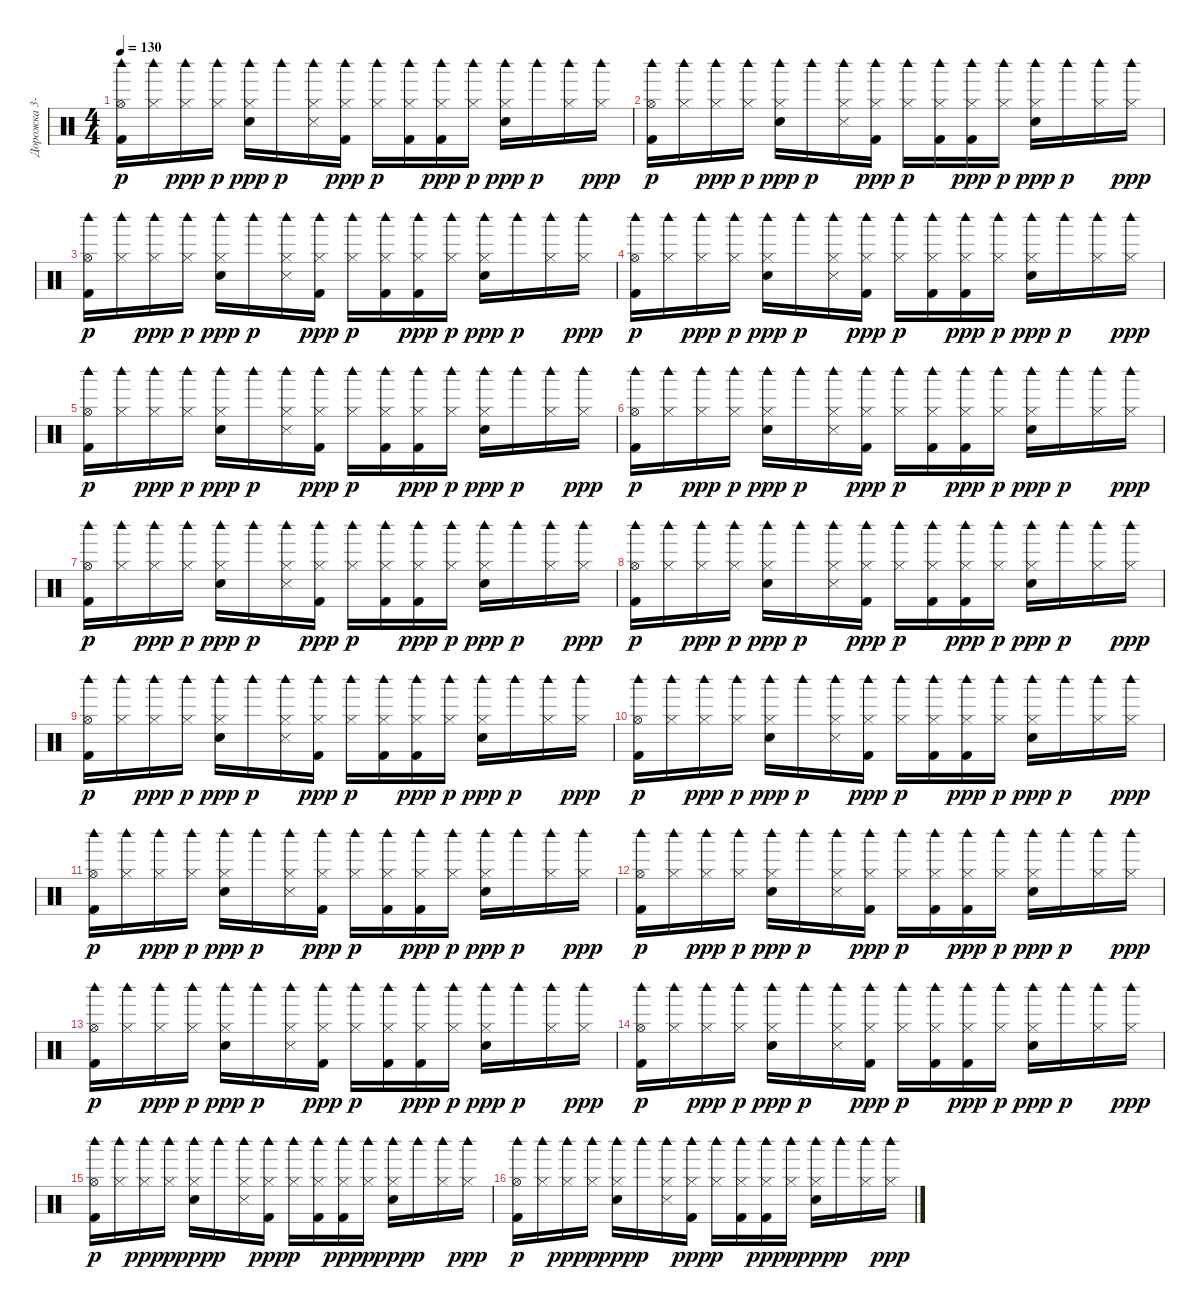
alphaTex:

\track ("Дорожка 3-4-5" "Дорожка 3-") {instrument percussion}
\staff {score}
\articulation defaults
\ts (4 4)
\tempo 130
\clef neutral
\ks c
("Kick (hit) 2" "Hi-Hat (open)" "Woodblock high (hit)").16{dy p} ("Hi-Hat (closed)" "Woodblock high (hit)").16 ("Hi-Hat (closed)" "Woodblock high (hit)").16{dy ppp} ("Hi-Hat (closed)" "Woodblock high (hit)").16{dy p} ("Electric Snare (hit)" "Hi-Hat (closed)" "Woodblock high (hit)").16{dy ppp} "Woodblock high (hit)".16{dy p} ("Snare (side stick) 3" "Hi-Hat (closed)" "Woodblock high (hit)").16 ("Kick (hit) 2" "Hi-Hat (closed)" "Woodblock high (hit)").16{dy ppp} ("Hi-Hat (closed)" "Woodblock high (hit)").16{dy p} ("Kick (hit) 2" "Hi-Hat (closed)" "Woodblock high (hit)").16 ("Kick (hit) 2" "Hi-Hat (closed)" "Woodblock high (hit)").16{dy ppp} ("Hi-Hat (closed)" "Woodblock high (hit)").16{dy p} ("Electric Snare (hit)" "Hi-Hat (closed)" "Woodblock high (hit)").16{dy ppp} "Woodblock high (hit)".16{dy p} ("Hi-Hat (closed)" "Woodblock high (hit)").16 ("Hi-Hat (closed)" "Woodblock high (hit)").16{dy ppp} |
("Kick (hit) 2" "Hi-Hat (open)" "Woodblock high (hit)").16{dy p} ("Hi-Hat (closed)" "Woodblock high (hit)").16 ("Hi-Hat (closed)" "Woodblock high (hit)").16{dy ppp} ("Hi-Hat (closed)" "Woodblock high (hit)").16{dy p} ("Electric Snare (hit)" "Hi-Hat (closed)" "Woodblock high (hit)").16{dy ppp} "Woodblock high (hit)".16{dy p} ("Snare (side stick) 3" "Hi-Hat (closed)" "Woodblock high (hit)").16 ("Kick (hit) 2" "Hi-Hat (closed)" "Woodblock high (hit)").16{dy ppp} ("Hi-Hat (closed)" "Woodblock high (hit)").16{dy p} ("Kick (hit) 2" "Hi-Hat (closed)" "Woodblock high (hit)").16 ("Kick (hit) 2" "Hi-Hat (closed)" "Woodblock high (hit)").16{dy ppp} ("Hi-Hat (closed)" "Woodblock high (hit)").16{dy p} ("Electric Snare (hit)" "Hi-Hat (closed)" "Woodblock high (hit)").16{dy ppp} "Woodblock high (hit)".16{dy p} ("Hi-Hat (closed)" "Woodblock high (hit)").16 ("Hi-Hat (closed)" "Woodblock high (hit)").16{dy ppp} |
("Kick (hit) 2" "Hi-Hat (open)" "Woodblock high (hit)").16{dy p} ("Hi-Hat (closed)" "Woodblock high (hit)").16 ("Hi-Hat (closed)" "Woodblock high (hit)").16{dy ppp} ("Hi-Hat (closed)" "Woodblock high (hit)").16{dy p} ("Electric Snare (hit)" "Hi-Hat (closed)" "Woodblock high (hit)").16{dy ppp} "Woodblock high (hit)".16{dy p} ("Snare (side stick) 3" "Hi-Hat (closed)" "Woodblock high (hit)").16 ("Kick (hit) 2" "Hi-Hat (closed)" "Woodblock high (hit)").16{dy ppp} ("Hi-Hat (closed)" "Woodblock high (hit)").16{dy p} ("Kick (hit) 2" "Hi-Hat (closed)" "Woodblock high (hit)").16 ("Kick (hit) 2" "Hi-Hat (closed)" "Woodblock high (hit)").16{dy ppp} ("Hi-Hat (closed)" "Woodblock high (hit)").16{dy p} ("Electric Snare (hit)" "Hi-Hat (closed)" "Woodblock high (hit)").16{dy ppp} "Woodblock high (hit)".16{dy p} ("Hi-Hat (closed)" "Woodblock high (hit)").16 ("Hi-Hat (closed)" "Woodblock high (hit)").16{dy ppp} |
("Kick (hit) 2" "Hi-Hat (open)" "Woodblock high (hit)").16{dy p} ("Hi-Hat (closed)" "Woodblock high (hit)").16 ("Hi-Hat (closed)" "Woodblock high (hit)").16{dy ppp} ("Hi-Hat (closed)" "Woodblock high (hit)").16{dy p} ("Electric Snare (hit)" "Hi-Hat (closed)" "Woodblock high (hit)").16{dy ppp} "Woodblock high (hit)".16{dy p} ("Snare (side stick) 3" "Hi-Hat (closed)" "Woodblock high (hit)").16 ("Kick (hit) 2" "Hi-Hat (closed)" "Woodblock high (hit)").16{dy ppp} ("Hi-Hat (closed)" "Woodblock high (hit)").16{dy p} ("Kick (hit) 2" "Hi-Hat (closed)" "Woodblock high (hit)").16 ("Kick (hit) 2" "Hi-Hat (closed)" "Woodblock high (hit)").16{dy ppp} ("Hi-Hat (closed)" "Woodblock high (hit)").16{dy p} ("Electric Snare (hit)" "Hi-Hat (closed)" "Woodblock high (hit)").16{dy ppp} "Woodblock high (hit)".16{dy p} ("Hi-Hat (closed)" "Woodblock high (hit)").16 ("Hi-Hat (closed)" "Woodblock high (hit)").16{dy ppp} |
("Kick (hit) 2" "Hi-Hat (open)" "Woodblock high (hit)").16{dy p} ("Hi-Hat (closed)" "Woodblock high (hit)").16 ("Hi-Hat (closed)" "Woodblock high (hit)").16{dy ppp} ("Hi-Hat (closed)" "Woodblock high (hit)").16{dy p} ("Electric Snare (hit)" "Hi-Hat (closed)" "Woodblock high (hit)").16{dy ppp} "Woodblock high (hit)".16{dy p} ("Snare (side stick) 3" "Hi-Hat (closed)" "Woodblock high (hit)").16 ("Kick (hit) 2" "Hi-Hat (closed)" "Woodblock high (hit)").16{dy ppp} ("Hi-Hat (closed)" "Woodblock high (hit)").16{dy p} ("Kick (hit) 2" "Hi-Hat (closed)" "Woodblock high (hit)").16 ("Kick (hit) 2" "Hi-Hat (closed)" "Woodblock high (hit)").16{dy ppp} ("Hi-Hat (closed)" "Woodblock high (hit)").16{dy p} ("Electric Snare (hit)" "Hi-Hat (closed)" "Woodblock high (hit)").16{dy ppp} "Woodblock high (hit)".16{dy p} ("Hi-Hat (closed)" "Woodblock high (hit)").16 ("Hi-Hat (closed)" "Woodblock high (hit)").16{dy ppp} |
("Kick (hit) 2" "Hi-Hat (open)" "Woodblock high (hit)").16{dy p} ("Hi-Hat (closed)" "Woodblock high (hit)").16 ("Hi-Hat (closed)" "Woodblock high (hit)").16{dy ppp} ("Hi-Hat (closed)" "Woodblock high (hit)").16{dy p} ("Electric Snare (hit)" "Hi-Hat (closed)" "Woodblock high (hit)").16{dy ppp} "Woodblock high (hit)".16{dy p} ("Snare (side stick) 3" "Hi-Hat (closed)" "Woodblock high (hit)").16 ("Kick (hit) 2" "Hi-Hat (closed)" "Woodblock high (hit)").16{dy ppp} ("Hi-Hat (closed)" "Woodblock high (hit)").16{dy p} ("Kick (hit) 2" "Hi-Hat (closed)" "Woodblock high (hit)").16 ("Kick (hit) 2" "Hi-Hat (closed)" "Woodblock high (hit)").16{dy ppp} ("Hi-Hat (closed)" "Woodblock high (hit)").16{dy p} ("Electric Snare (hit)" "Hi-Hat (closed)" "Woodblock high (hit)").16{dy ppp} "Woodblock high (hit)".16{dy p} ("Hi-Hat (closed)" "Woodblock high (hit)").16 ("Hi-Hat (closed)" "Woodblock high (hit)").16{dy ppp} |
("Kick (hit) 2" "Hi-Hat (open)" "Woodblock high (hit)").16{dy p} ("Hi-Hat (closed)" "Woodblock high (hit)").16 ("Hi-Hat (closed)" "Woodblock high (hit)").16{dy ppp} ("Hi-Hat (closed)" "Woodblock high (hit)").16{dy p} ("Electric Snare (hit)" "Hi-Hat (closed)" "Woodblock high (hit)").16{dy ppp} "Woodblock high (hit)".16{dy p} ("Snare (side stick) 3" "Hi-Hat (closed)" "Woodblock high (hit)").16 ("Kick (hit) 2" "Hi-Hat (closed)" "Woodblock high (hit)").16{dy ppp} ("Hi-Hat (closed)" "Woodblock high (hit)").16{dy p} ("Kick (hit) 2" "Hi-Hat (closed)" "Woodblock high (hit)").16 ("Kick (hit) 2" "Hi-Hat (closed)" "Woodblock high (hit)").16{dy ppp} ("Hi-Hat (closed)" "Woodblock high (hit)").16{dy p} ("Electric Snare (hit)" "Hi-Hat (closed)" "Woodblock high (hit)").16{dy ppp} "Woodblock high (hit)".16{dy p} ("Hi-Hat (closed)" "Woodblock high (hit)").16 ("Hi-Hat (closed)" "Woodblock high (hit)").16{dy ppp} |
("Kick (hit) 2" "Hi-Hat (open)" "Woodblock high (hit)").16{dy p} ("Hi-Hat (closed)" "Woodblock high (hit)").16 ("Hi-Hat (closed)" "Woodblock high (hit)").16{dy ppp} ("Hi-Hat (closed)" "Woodblock high (hit)").16{dy p} ("Electric Snare (hit)" "Hi-Hat (closed)" "Woodblock high (hit)").16{dy ppp} "Woodblock high (hit)".16{dy p} ("Snare (side stick) 3" "Hi-Hat (closed)" "Woodblock high (hit)").16 ("Kick (hit) 2" "Hi-Hat (closed)" "Woodblock high (hit)").16{dy ppp} ("Hi-Hat (closed)" "Woodblock high (hit)").16{dy p} ("Kick (hit) 2" "Hi-Hat (closed)" "Woodblock high (hit)").16 ("Kick (hit) 2" "Hi-Hat (closed)" "Woodblock high (hit)").16{dy ppp} ("Hi-Hat (closed)" "Woodblock high (hit)").16{dy p} ("Electric Snare (hit)" "Hi-Hat (closed)" "Woodblock high (hit)").16{dy ppp} "Woodblock high (hit)".16{dy p} ("Hi-Hat (closed)" "Woodblock high (hit)").16 ("Hi-Hat (closed)" "Woodblock high (hit)").16{dy ppp} |
("Kick (hit) 2" "Hi-Hat (open)" "Woodblock high (hit)").16{dy p} ("Hi-Hat (closed)" "Woodblock high (hit)").16 ("Hi-Hat (closed)" "Woodblock high (hit)").16{dy ppp} ("Hi-Hat (closed)" "Woodblock high (hit)").16{dy p} ("Electric Snare (hit)" "Hi-Hat (closed)" "Woodblock high (hit)").16{dy ppp} "Woodblock high (hit)".16{dy p} ("Snare (side stick) 3" "Hi-Hat (closed)" "Woodblock high (hit)").16 ("Kick (hit) 2" "Hi-Hat (closed)" "Woodblock high (hit)").16{dy ppp} ("Hi-Hat (closed)" "Woodblock high (hit)").16{dy p} ("Kick (hit) 2" "Hi-Hat (closed)" "Woodblock high (hit)").16 ("Kick (hit) 2" "Hi-Hat (closed)" "Woodblock high (hit)").16{dy ppp} ("Hi-Hat (closed)" "Woodblock high (hit)").16{dy p} ("Electric Snare (hit)" "Hi-Hat (closed)" "Woodblock high (hit)").16{dy ppp} "Woodblock high (hit)".16{dy p} ("Hi-Hat (closed)" "Woodblock high (hit)").16 ("Hi-Hat (closed)" "Woodblock high (hit)").16{dy ppp} |
("Kick (hit) 2" "Hi-Hat (open)" "Woodblock high (hit)").16{dy p} ("Hi-Hat (closed)" "Woodblock high (hit)").16 ("Hi-Hat (closed)" "Woodblock high (hit)").16{dy ppp} ("Hi-Hat (closed)" "Woodblock high (hit)").16{dy p} ("Electric Snare (hit)" "Hi-Hat (closed)" "Woodblock high (hit)").16{dy ppp} "Woodblock high (hit)".16{dy p} ("Snare (side stick) 3" "Hi-Hat (closed)" "Woodblock high (hit)").16 ("Kick (hit) 2" "Hi-Hat (closed)" "Woodblock high (hit)").16{dy ppp} ("Hi-Hat (closed)" "Woodblock high (hit)").16{dy p} ("Kick (hit) 2" "Hi-Hat (closed)" "Woodblock high (hit)").16 ("Kick (hit) 2" "Hi-Hat (closed)" "Woodblock high (hit)").16{dy ppp} ("Hi-Hat (closed)" "Woodblock high (hit)").16{dy p} ("Electric Snare (hit)" "Hi-Hat (closed)" "Woodblock high (hit)").16{dy ppp} "Woodblock high (hit)".16{dy p} ("Hi-Hat (closed)" "Woodblock high (hit)").16 ("Hi-Hat (closed)" "Woodblock high (hit)").16{dy ppp} |
("Kick (hit) 2" "Hi-Hat (open)" "Woodblock high (hit)").16{dy p} ("Hi-Hat (closed)" "Woodblock high (hit)").16 ("Hi-Hat (closed)" "Woodblock high (hit)").16{dy ppp} ("Hi-Hat (closed)" "Woodblock high (hit)").16{dy p} ("Electric Snare (hit)" "Hi-Hat (closed)" "Woodblock high (hit)").16{dy ppp} "Woodblock high (hit)".16{dy p} ("Snare (side stick) 3" "Hi-Hat (closed)" "Woodblock high (hit)").16 ("Kick (hit) 2" "Hi-Hat (closed)" "Woodblock high (hit)").16{dy ppp} ("Hi-Hat (closed)" "Woodblock high (hit)").16{dy p} ("Kick (hit) 2" "Hi-Hat (closed)" "Woodblock high (hit)").16 ("Kick (hit) 2" "Hi-Hat (closed)" "Woodblock high (hit)").16{dy ppp} ("Hi-Hat (closed)" "Woodblock high (hit)").16{dy p} ("Electric Snare (hit)" "Hi-Hat (closed)" "Woodblock high (hit)").16{dy ppp} "Woodblock high (hit)".16{dy p} ("Hi-Hat (closed)" "Woodblock high (hit)").16 ("Hi-Hat (closed)" "Woodblock high (hit)").16{dy ppp} |
("Kick (hit) 2" "Hi-Hat (open)" "Woodblock high (hit)").16{dy p} ("Hi-Hat (closed)" "Woodblock high (hit)").16 ("Hi-Hat (closed)" "Woodblock high (hit)").16{dy ppp} ("Hi-Hat (closed)" "Woodblock high (hit)").16{dy p} ("Electric Snare (hit)" "Hi-Hat (closed)" "Woodblock high (hit)").16{dy ppp} "Woodblock high (hit)".16{dy p} ("Snare (side stick) 3" "Hi-Hat (closed)" "Woodblock high (hit)").16 ("Kick (hit) 2" "Hi-Hat (closed)" "Woodblock high (hit)").16{dy ppp} ("Hi-Hat (closed)" "Woodblock high (hit)").16{dy p} ("Kick (hit) 2" "Hi-Hat (closed)" "Woodblock high (hit)").16 ("Kick (hit) 2" "Hi-Hat (closed)" "Woodblock high (hit)").16{dy ppp} ("Hi-Hat (closed)" "Woodblock high (hit)").16{dy p} ("Electric Snare (hit)" "Hi-Hat (closed)" "Woodblock high (hit)").16{dy ppp} "Woodblock high (hit)".16{dy p} ("Hi-Hat (closed)" "Woodblock high (hit)").16 ("Hi-Hat (closed)" "Woodblock high (hit)").16{dy ppp} |
("Kick (hit) 2" "Hi-Hat (open)" "Woodblock high (hit)").16{dy p} ("Hi-Hat (closed)" "Woodblock high (hit)").16 ("Hi-Hat (closed)" "Woodblock high (hit)").16{dy ppp} ("Hi-Hat (closed)" "Woodblock high (hit)").16{dy p} ("Electric Snare (hit)" "Hi-Hat (closed)" "Woodblock high (hit)").16{dy ppp} "Woodblock high (hit)".16{dy p} ("Snare (side stick) 3" "Hi-Hat (closed)" "Woodblock high (hit)").16 ("Kick (hit) 2" "Hi-Hat (closed)" "Woodblock high (hit)").16{dy ppp} ("Hi-Hat (closed)" "Woodblock high (hit)").16{dy p} ("Kick (hit) 2" "Hi-Hat (closed)" "Woodblock high (hit)").16 ("Kick (hit) 2" "Hi-Hat (closed)" "Woodblock high (hit)").16{dy ppp} ("Hi-Hat (closed)" "Woodblock high (hit)").16{dy p} ("Electric Snare (hit)" "Hi-Hat (closed)" "Woodblock high (hit)").16{dy ppp} "Woodblock high (hit)".16{dy p} ("Hi-Hat (closed)" "Woodblock high (hit)").16 ("Hi-Hat (closed)" "Woodblock high (hit)").16{dy ppp} |
("Kick (hit) 2" "Hi-Hat (open)" "Woodblock high (hit)").16{dy p} ("Hi-Hat (closed)" "Woodblock high (hit)").16 ("Hi-Hat (closed)" "Woodblock high (hit)").16{dy ppp} ("Hi-Hat (closed)" "Woodblock high (hit)").16{dy p} ("Electric Snare (hit)" "Hi-Hat (closed)" "Woodblock high (hit)").16{dy ppp} "Woodblock high (hit)".16{dy p} ("Snare (side stick) 3" "Hi-Hat (closed)" "Woodblock high (hit)").16 ("Kick (hit) 2" "Hi-Hat (closed)" "Woodblock high (hit)").16{dy ppp} ("Hi-Hat (closed)" "Woodblock high (hit)").16{dy p} ("Kick (hit) 2" "Hi-Hat (closed)" "Woodblock high (hit)").16 ("Kick (hit) 2" "Hi-Hat (closed)" "Woodblock high (hit)").16{dy ppp} ("Hi-Hat (closed)" "Woodblock high (hit)").16{dy p} ("Electric Snare (hit)" "Hi-Hat (closed)" "Woodblock high (hit)").16{dy ppp} "Woodblock high (hit)".16{dy p} ("Hi-Hat (closed)" "Woodblock high (hit)").16 ("Hi-Hat (closed)" "Woodblock high (hit)").16{dy ppp} |
("Kick (hit) 2" "Hi-Hat (open)" "Woodblock high (hit)").16{dy p} ("Hi-Hat (closed)" "Woodblock high (hit)").16 ("Hi-Hat (closed)" "Woodblock high (hit)").16{dy ppp} ("Hi-Hat (closed)" "Woodblock high (hit)").16{dy p} ("Electric Snare (hit)" "Hi-Hat (closed)" "Woodblock high (hit)").16{dy ppp} "Woodblock high (hit)".16{dy p} ("Snare (side stick) 3" "Hi-Hat (closed)" "Woodblock high (hit)").16 ("Kick (hit) 2" "Hi-Hat (closed)" "Woodblock high (hit)").16{dy ppp} ("Hi-Hat (closed)" "Woodblock high (hit)").16{dy p} ("Kick (hit) 2" "Hi-Hat (closed)" "Woodblock high (hit)").16 ("Kick (hit) 2" "Hi-Hat (closed)" "Woodblock high (hit)").16{dy ppp} ("Hi-Hat (closed)" "Woodblock high (hit)").16{dy p} ("Electric Snare (hit)" "Hi-Hat (closed)" "Woodblock high (hit)").16{dy ppp} "Woodblock high (hit)".16{dy p} ("Hi-Hat (closed)" "Woodblock high (hit)").16 ("Hi-Hat (closed)" "Woodblock high (hit)").16{dy ppp} |
("Kick (hit) 2" "Hi-Hat (open)" "Woodblock high (hit)").16{dy p} ("Hi-Hat (closed)" "Woodblock high (hit)").16 ("Hi-Hat (closed)" "Woodblock high (hit)").16{dy ppp} ("Hi-Hat (closed)" "Woodblock high (hit)").16{dy p} ("Electric Snare (hit)" "Hi-Hat (closed)" "Woodblock high (hit)").16{dy ppp} "Woodblock high (hit)".16{dy p} ("Snare (side stick) 3" "Hi-Hat (closed)" "Woodblock high (hit)").16 ("Kick (hit) 2" "Hi-Hat (closed)" "Woodblock high (hit)").16{dy ppp} ("Hi-Hat (closed)" "Woodblock high (hit)").16{dy p} ("Kick (hit) 2" "Hi-Hat (closed)" "Woodblock high (hit)").16 ("Kick (hit) 2" "Hi-Hat (closed)" "Woodblock high (hit)").16{dy ppp} ("Hi-Hat (closed)" "Woodblock high (hit)").16{dy p} ("Electric Snare (hit)" "Hi-Hat (closed)" "Woodblock high (hit)").16{dy ppp} "Woodblock high (hit)".16{dy p} ("Hi-Hat (closed)" "Woodblock high (hit)").16 ("Hi-Hat (closed)" "Woodblock high (hit)").16{dy ppp}
